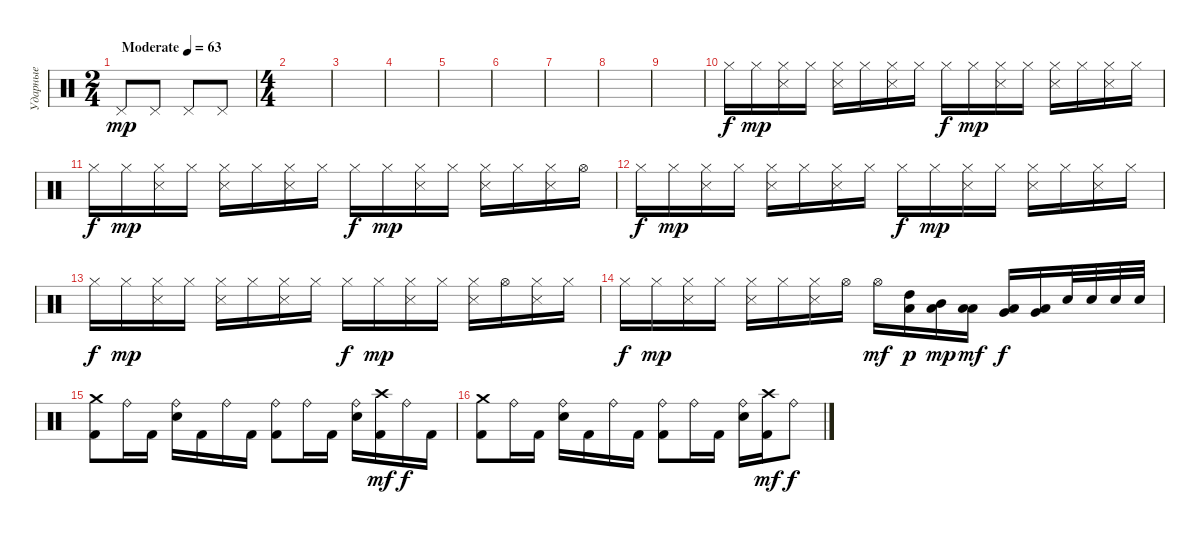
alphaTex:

\track ("Ударные" "Ударные") {instrument percussion}
\staff {score}
\articulation defaults
\ts (2 4)
\tempo (63 "Moderate")
\clef neutral
\ks c "Pedal Hi-Hat (hit)".8{dy mp} "Pedal Hi-Hat (hit)".8 "Pedal Hi-Hat (hit)".8 "Pedal Hi-Hat (hit)".8
|
\ts (4 4)
|
|
|
|
|
|
|
|
"Hi-Hat (closed)".16{dy f} "Hi-Hat (closed)".16{dy mp} ("Snare (side stick) 3" "Hi-Hat (closed)").16 "Hi-Hat (closed)".16 ("Snare (side stick) 3" "Hi-Hat (closed)").16 "Hi-Hat (closed)".16 ("Snare (side stick) 3" "Hi-Hat (closed)").16 "Hi-Hat (closed)".16 "Hi-Hat (closed)".16{dy f} "Hi-Hat (closed)".16{dy mp} ("Snare (side stick) 3" "Hi-Hat (closed)").16 "Hi-Hat (closed)".16 ("Snare (side stick) 3" "Hi-Hat (closed)").16 "Hi-Hat (closed)".16 ("Snare (side stick) 3" "Hi-Hat (closed)").16 "Hi-Hat (closed)".16 |
"Hi-Hat (closed)".16{dy f} "Hi-Hat (closed)".16{dy mp} ("Snare (side stick) 3" "Hi-Hat (closed)").16 "Hi-Hat (closed)".16 ("Snare (side stick) 3" "Hi-Hat (closed)").16 "Hi-Hat (closed)".16 ("Snare (side stick) 3" "Hi-Hat (closed)").16 "Hi-Hat (closed)".16 "Hi-Hat (closed)".16{dy f} "Hi-Hat (closed)".16{dy mp} ("Snare (side stick) 3" "Hi-Hat (closed)").16 "Hi-Hat (closed)".16 ("Snare (side stick) 3" "Hi-Hat (closed)").16 "Hi-Hat (closed)".16 ("Snare (side stick) 3" "Hi-Hat (closed)").16 "Hi-Hat (open)".16 |
"Hi-Hat (closed)".16{dy f} "Hi-Hat (closed)".16{dy mp} ("Snare (side stick) 3" "Hi-Hat (closed)").16 "Hi-Hat (closed)".16 ("Snare (side stick) 3" "Hi-Hat (closed)").16 "Hi-Hat (closed)".16 ("Snare (side stick) 3" "Hi-Hat (closed)").16 "Hi-Hat (closed)".16 "Hi-Hat (closed)".16{dy f} "Hi-Hat (closed)".16{dy mp} ("Snare (side stick) 3" "Hi-Hat (closed)").16 "Hi-Hat (closed)".16 ("Snare (side stick) 3" "Hi-Hat (closed)").16 "Hi-Hat (closed)".16 ("Snare (side stick) 3" "Hi-Hat (closed)").16 "Hi-Hat (closed)".16 |
"Hi-Hat (closed)".16{dy f} "Hi-Hat (closed)".16{dy mp} ("Snare (side stick) 3" "Hi-Hat (closed)").16 "Hi-Hat (closed)".16 ("Snare (side stick) 3" "Hi-Hat (closed)").16 "Hi-Hat (closed)".16 ("Snare (side stick) 3" "Hi-Hat (closed)").16 "Hi-Hat (closed)".16 "Hi-Hat (closed)".16{dy f} "Hi-Hat (closed)".16{dy mp} ("Snare (side stick) 3" "Hi-Hat (closed)").16 "Hi-Hat (closed)".16 ("Snare (side stick) 3" "Hi-Hat (closed)").16 "Hi-Hat (open)".16 ("Snare (side stick) 3" "Hi-Hat (closed)").16 "Hi-Hat (closed)".16 |
"Hi-Hat (closed)".16{dy f} "Hi-Hat (closed)".16{dy mp} ("Snare (side stick) 3" "Hi-Hat (closed)").16 "Hi-Hat (closed)".16 ("Snare (side stick) 3" "Hi-Hat (closed)").16 "Hi-Hat (closed)".16 ("Snare (side stick) 3" "Hi-Hat (closed)").16 "Hi-Hat (open)".16 "Hi-Hat (open)".16{dy mf} ("High Tom (hit)" "Low Tom (hit)").16{dy p} ("Mid Tom (hit)" "Low Tom (hit)").16{dy mp} ("Low Tom (hit)" "Low Tom (hit)").16{dy mf} ("Very Low Tom (hit)" "Low Tom (hit)").16{dy f} ("Very Low Tom (hit)" "Low Tom (hit)").16 "Snare (hit) 2".32 "Snare (hit) 2".32 "Snare (hit) 2".32 "Snare (hit) 2".32 |
("Crash medium (hit)" "Kick (hit) 2").8 "Ride (bell)".16 "Kick (hit) 2".16 ("Ride (bell)" "Snare (hit) 2").16 "Kick (hit) 2".16 "Ride (bell)".16 "Kick (hit) 2".16 ("Ride (bell)" "Kick (hit) 2").8 "Ride (bell)".16 "Kick (hit) 2".16 ("Ride (bell)" "Snare (hit) 2").16 ("Crash high (hit)" "Kick (hit) 2").16{dy mf} "Ride (bell)".16{dy f} "Kick (hit) 2".16 |
("Crash medium (hit)" "Kick (hit) 2").8 "Ride (bell)".16 "Kick (hit) 2".16 ("Ride (bell)" "Snare (hit) 2").16 "Kick (hit) 2".16 "Ride (bell)".16 "Kick (hit) 2".16 ("Ride (bell)" "Kick (hit) 2").8 "Ride (bell)".16 "Kick (hit) 2".16 ("Ride (bell)" "Snare (hit) 2").16 ("Crash high (hit)" "Kick (hit) 2").16{dy mf} "Ride (bell)".8{dy f}
